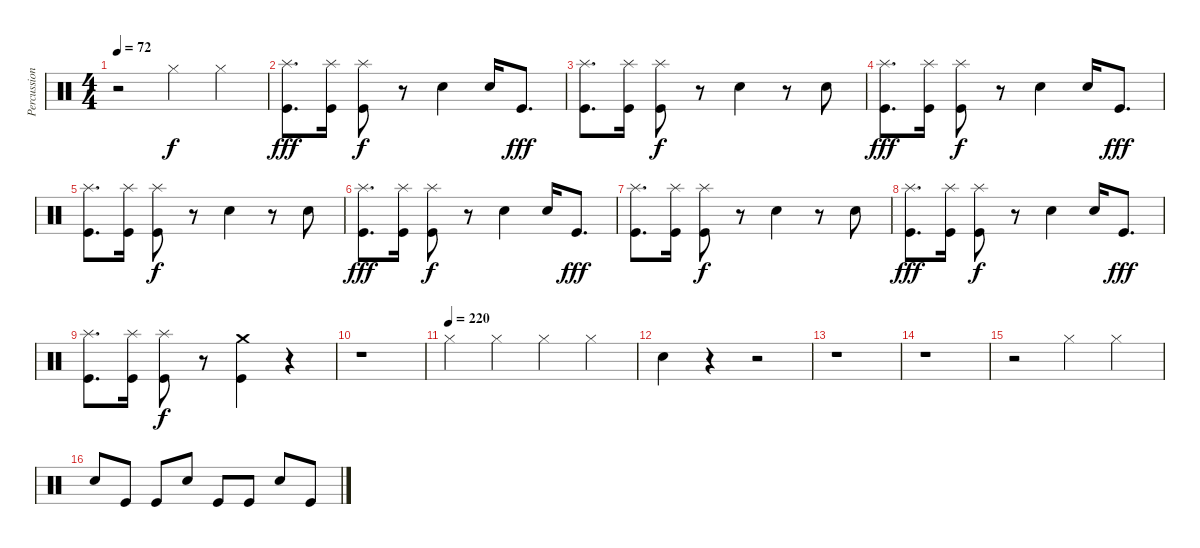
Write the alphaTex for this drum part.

\track ("Percussions" "Percussion") {instrument percussion}
\staff {score}
\articulation defaults
\ts (4 4)
\tempo 72
\clef neutral
\ks c
r.2{dy f} "Hi-Hat (closed)".4 "Hi-Hat (closed)".4 |
("Kick (hit)" "Splash (hit)").8{d dy fff} ("Kick (hit)" "Splash (hit)").16 ("Kick (hit)" "Splash (hit)").8{dy f} r.8 "Electric Snare (hit)".4 "Electric Snare (hit)".16 "Kick (hit)".8{d dy fff} |
("Kick (hit)" "Splash (hit)").8{d} ("Kick (hit)" "Splash (hit)").16 ("Kick (hit)" "Splash (hit)").8{dy f} r.8 "Electric Snare (hit)".4 r.8 "Electric Snare (hit)".8 |
("Kick (hit)" "Splash (hit)").8{d dy fff} ("Kick (hit)" "Splash (hit)").16 ("Kick (hit)" "Splash (hit)").8{dy f} r.8 "Electric Snare (hit)".4 "Electric Snare (hit)".16 "Kick (hit)".8{d dy fff} |
("Kick (hit)" "Splash (hit)").8{d} ("Kick (hit)" "Splash (hit)").16 ("Kick (hit)" "Splash (hit)").8{dy f} r.8 "Electric Snare (hit)".4 r.8 "Electric Snare (hit)".8 |
("Kick (hit)" "Splash (hit)").8{d dy fff} ("Kick (hit)" "Splash (hit)").16 ("Kick (hit)" "Splash (hit)").8{dy f} r.8 "Electric Snare (hit)".4 "Electric Snare (hit)".16 "Kick (hit)".8{d dy fff} |
("Kick (hit)" "Splash (hit)").8{d} ("Kick (hit)" "Splash (hit)").16 ("Kick (hit)" "Splash (hit)").8{dy f} r.8 "Electric Snare (hit)".4 r.8 "Electric Snare (hit)".8 |
("Kick (hit)" "Splash (hit)").8{d dy fff} ("Kick (hit)" "Splash (hit)").16 ("Kick (hit)" "Splash (hit)").8{dy f} r.8 "Electric Snare (hit)".4 "Electric Snare (hit)".16 "Kick (hit)".8{d dy fff} |
("Kick (hit)" "Splash (hit)").8{d} ("Kick (hit)" "Splash (hit)").16 ("Kick (hit)" "Splash (hit)").8{dy f} r.8 ("Kick (hit)" "Crash medium (hit)").4 r.4 |
r.1 |
\tempo 230
\tempo (220)
"Hi-Hat (closed)".4 "Hi-Hat (closed)".4 "Hi-Hat (closed)".4 "Hi-Hat (closed)".4 |
"Electric Snare (hit)".4 r.4 r.2 |
r.1 |
r.1 |
r.2 "Hi-Hat (closed)".4 "Hi-Hat (closed)".4 |
"Electric Snare (hit)".8 "Kick (hit)".8 "Kick (hit)".8 "Electric Snare (hit)".8 "Kick (hit)".8 "Kick (hit)".8 "Electric Snare (hit)".8 "Kick (hit)".8
